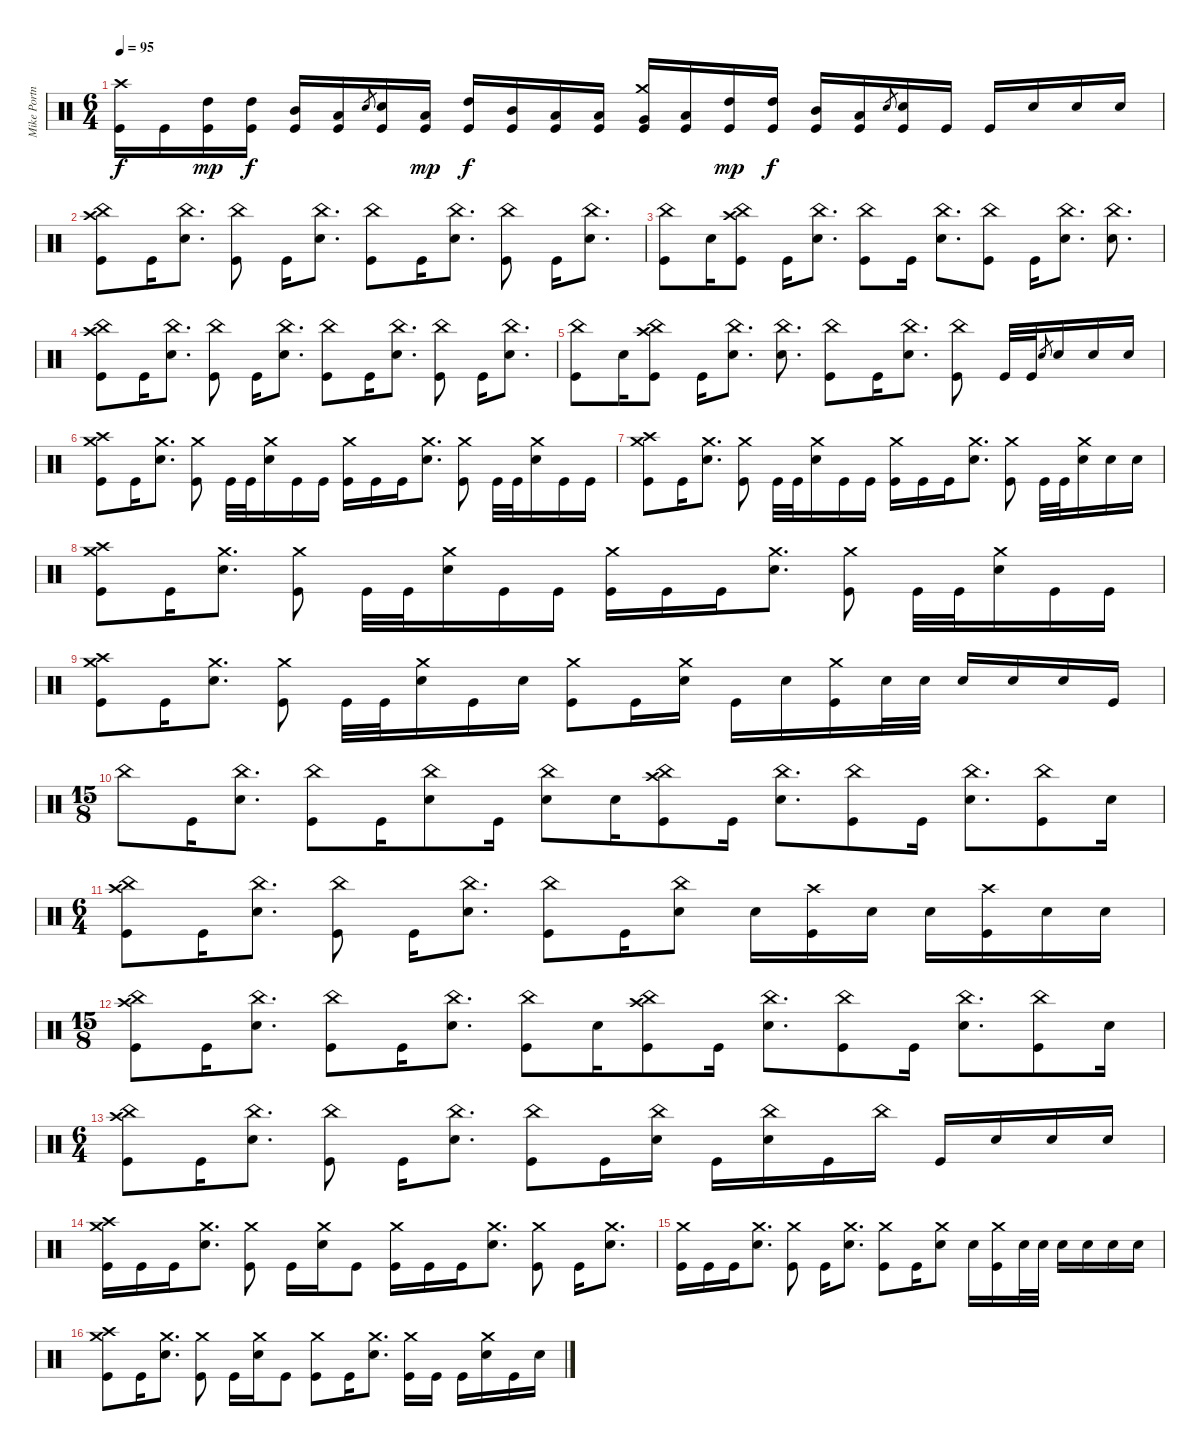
\track ("Mike Portnoy" "Mike Portn") {instrument percussion}
\staff {score}
\articulation defaults
\ts (6 4)
\tempo 95
\clef neutral
\ks c
("Crash high (hit)" "Kick (hit)").16{dy f} "Kick (hit)".16 ("High Tom (hit)" "Kick (hit)").16{dy mp} ("High Tom (hit)" "Kick (hit)").16{dy f} ("Mid Tom (hit)" "Kick (hit)").16 ("Low Tom (hit)" "Kick (hit)").16 "Electric Snare (hit)".8{gr} ("Electric Snare (hit)" "Kick (hit)").16 ("Low Tom (hit)" "Kick (hit)").16{dy mp} ("High Tom (hit)" "Kick (hit)").16{dy f} ("Mid Tom (hit)" "Kick (hit)").16 ("Low Tom (hit)" "Kick (hit)").16 ("Low Tom (hit)" "Kick (hit)").16 ("Crash medium (hit)" "Very Low Tom (hit)" "Kick (hit)").16 ("Low Tom (hit)" "Kick (hit)").16 ("High Tom (hit)" "Kick (hit)").16{dy mp} ("High Tom (hit)" "Kick (hit)").16{dy f} ("Mid Tom (hit)" "Kick (hit)").16 ("Low Tom (hit)" "Kick (hit)").16 "Electric Snare (hit)".8{gr} ("Electric Snare (hit)" "Kick (hit)").16 "Kick (hit)".16 "Kick (hit)".16 "Electric Snare (hit)".16 "Electric Snare (hit)".16 "Electric Snare (hit)".16 |
("China (hit)" "Crash high (hit)" "Kick (hit)").8 "Kick (hit)".16 ("China (hit)" "Electric Snare (hit)").8{d} ("China (hit)" "Kick (hit)").8 "Kick (hit)".16 ("China (hit)" "Electric Snare (hit)").8{d} ("China (hit)" "Kick (hit)").8 "Kick (hit)".16 ("China (hit)" "Electric Snare (hit)").8{d} ("China (hit)" "Kick (hit)").8 "Kick (hit)".16 ("China (hit)" "Electric Snare (hit)").8{d} |
("China (hit)" "Kick (hit)").8 "Electric Snare (hit)".16 ("China (hit)" "Crash high (hit)" "Kick (hit)").8 "Kick (hit)".16 ("China (hit)" "Electric Snare (hit)").8{d} ("China (hit)" "Kick (hit)").8 "Kick (hit)".16 ("China (hit)" "Electric Snare (hit)").8{d} ("China (hit)" "Kick (hit)").8 "Kick (hit)".16 ("China (hit)" "Electric Snare (hit)").8{d} ("China (hit)" "Electric Snare (hit)").8{d} |
("China (hit)" "Crash high (hit)" "Kick (hit)").8 "Kick (hit)".16 ("China (hit)" "Electric Snare (hit)").8{d} ("China (hit)" "Kick (hit)").8 "Kick (hit)".16 ("China (hit)" "Electric Snare (hit)").8{d} ("China (hit)" "Kick (hit)").8 "Kick (hit)".16 ("China (hit)" "Electric Snare (hit)").8{d} ("China (hit)" "Kick (hit)").8 "Kick (hit)".16 ("China (hit)" "Electric Snare (hit)").8{d} |
("China (hit)" "Kick (hit)").8 "Electric Snare (hit)".16 ("China (hit)" "Crash high (hit)" "Kick (hit)").8 "Kick (hit)".16 ("China (hit)" "Electric Snare (hit)").8{d} ("China (hit)" "Electric Snare (hit)").8{d} ("China (hit)" "Kick (hit)").8 "Kick (hit)".16 ("China (hit)" "Electric Snare (hit)").8{d} ("China (hit)" "Kick (hit)").8 "Kick (hit)".32 "Kick (hit)".32 "Electric Snare (hit)".8{gr} "Electric Snare (hit)".16 "Electric Snare (hit)".16 "Electric Snare (hit)".16 |
("Crash high (hit)" "Crash medium (hit)" "Kick (hit)").8 "Kick (hit)".16 ("Crash medium (hit)" "Electric Snare (hit)").8{d} ("Crash medium (hit)" "Kick (hit)").8 "Kick (hit)".32 "Kick (hit)".32 ("Crash medium (hit)" "Electric Snare (hit)").16 "Kick (hit)".16 "Kick (hit)".16 ("Crash medium (hit)" "Kick (hit)").16 "Kick (hit)".16 "Kick (hit)".16 ("Crash medium (hit)" "Electric Snare (hit)").8{d} ("Crash medium (hit)" "Kick (hit)").8 "Kick (hit)".32 "Kick (hit)".32 ("Crash medium (hit)" "Electric Snare (hit)").16 "Kick (hit)".16 "Kick (hit)".16 |
("Crash high (hit)" "Crash medium (hit)" "Kick (hit)").8 "Kick (hit)".16 ("Crash medium (hit)" "Electric Snare (hit)").8{d} ("Crash medium (hit)" "Kick (hit)").8 "Kick (hit)".32 "Kick (hit)".32 ("Crash medium (hit)" "Electric Snare (hit)").16 "Kick (hit)".16 "Kick (hit)".16 ("Crash medium (hit)" "Kick (hit)").16 "Kick (hit)".16 "Kick (hit)".16 ("Crash medium (hit)" "Electric Snare (hit)").8{d} ("Crash medium (hit)" "Kick (hit)").8 "Kick (hit)".32 "Kick (hit)".32 ("Crash medium (hit)" "Electric Snare (hit)").16 "Electric Snare (hit)".16 "Electric Snare (hit)".16 |
("Crash high (hit)" "Crash medium (hit)" "Kick (hit)").8 "Kick (hit)".16 ("Crash medium (hit)" "Electric Snare (hit)").8{d} ("Crash medium (hit)" "Kick (hit)").8 "Kick (hit)".32 "Kick (hit)".32 ("Crash medium (hit)" "Electric Snare (hit)").16 "Kick (hit)".16 "Kick (hit)".16 ("Crash medium (hit)" "Kick (hit)").16 "Kick (hit)".16 "Kick (hit)".16 ("Crash medium (hit)" "Electric Snare (hit)").8{d} ("Crash medium (hit)" "Kick (hit)").8 "Kick (hit)".32 "Kick (hit)".32 ("Crash medium (hit)" "Electric Snare (hit)").16 "Kick (hit)".16 "Kick (hit)".16 |
("Crash high (hit)" "Crash medium (hit)" "Kick (hit)").8 "Kick (hit)".16 ("Crash medium (hit)" "Electric Snare (hit)").8{d} ("Crash medium (hit)" "Kick (hit)").8 "Kick (hit)".32 "Kick (hit)".32 ("Crash medium (hit)" "Electric Snare (hit)").16 "Kick (hit)".16 "Electric Snare (hit)".16 ("Crash medium (hit)" "Kick (hit)").8 "Kick (hit)".16 ("Crash medium (hit)" "Electric Snare (hit)").16 "Kick (hit)".16 "Electric Snare (hit)".16 ("Crash medium (hit)" "Kick (hit)").16 "Electric Snare (hit)".32 "Electric Snare (hit)".32 "Electric Snare (hit)".16 "Electric Snare (hit)".16 "Electric Snare (hit)".16 "Kick (hit)".16 |
\ts (15 8)
"China (hit)".8 "Kick (hit)".16 ("China (hit)" "Electric Snare (hit)").8{d} ("China (hit)" "Kick (hit)").8 "Kick (hit)".16 ("China (hit)" "Electric Snare (hit)").8 "Kick (hit)".16 ("China (hit)" "Electric Snare (hit)").8 "Electric Snare (hit)".16 ("China (hit)" "Crash high (hit)" "Kick (hit)").8 "Kick (hit)".16 ("China (hit)" "Electric Snare (hit)").8{d} ("China (hit)" "Kick (hit)").8 "Kick (hit)".16 ("China (hit)" "Electric Snare (hit)").8{d} ("China (hit)" "Kick (hit)").8 "Electric Snare (hit)".16 |
\ts (6 4)
("China (hit)" "Crash high (hit)" "Kick (hit)").8 "Kick (hit)".16 ("China (hit)" "Electric Snare (hit)").8{d} ("China (hit)" "Kick (hit)").8 "Kick (hit)".16 ("China (hit)" "Electric Snare (hit)").8{d} ("China (hit)" "Kick (hit)").8 "Kick (hit)".16 ("China (hit)" "Electric Snare (hit)").8 "Electric Snare (hit)".16 ("Crash high (hit)" "Kick (hit)").16 "Electric Snare (hit)".16 "Electric Snare (hit)".16 ("Crash high (hit)" "Kick (hit)").16 "Electric Snare (hit)".16 "Electric Snare (hit)".16 |
\ts (15 8)
("China (hit)" "Crash high (hit)" "Kick (hit)").8 "Kick (hit)".16 ("China (hit)" "Electric Snare (hit)").8{d} ("China (hit)" "Kick (hit)").8 "Kick (hit)".16 ("China (hit)" "Electric Snare (hit)").8{d} ("China (hit)" "Kick (hit)").8 "Electric Snare (hit)".16 ("China (hit)" "Crash high (hit)" "Kick (hit)").8 "Kick (hit)".16 ("China (hit)" "Electric Snare (hit)").8{d} ("China (hit)" "Kick (hit)").8 "Kick (hit)".16 ("China (hit)" "Electric Snare (hit)").8{d} ("China (hit)" "Kick (hit)").8 "Electric Snare (hit)".16 |
\ts (6 4)
("China (hit)" "Crash high (hit)" "Kick (hit)").8 "Kick (hit)".16 ("China (hit)" "Electric Snare (hit)").8{d} ("China (hit)" "Kick (hit)").8 "Kick (hit)".16 ("China (hit)" "Electric Snare (hit)").8{d} ("China (hit)" "Kick (hit)").8 "Kick (hit)".16 ("China (hit)" "Electric Snare (hit)").16 "Kick (hit)".16 ("China (hit)" "Electric Snare (hit)").16 "Kick (hit)".16 "China (hit)".16 "Kick (hit)".16 "Electric Snare (hit)".16 "Electric Snare (hit)".16 "Electric Snare (hit)".16 |
("Crash high (hit)" "Crash medium (hit)" "Kick (hit)").16 "Kick (hit)".16 "Kick (hit)".16 ("Crash medium (hit)" "Electric Snare (hit)").8{d} ("Crash medium (hit)" "Kick (hit)").8 "Kick (hit)".16 ("Crash medium (hit)" "Electric Snare (hit)").16 "Kick (hit)".8 ("Crash medium (hit)" "Kick (hit)").16 "Kick (hit)".16 "Kick (hit)".16 ("Crash medium (hit)" "Electric Snare (hit)").8{d} ("Crash medium (hit)" "Kick (hit)").8 "Kick (hit)".16 ("Crash medium (hit)" "Electric Snare (hit)").8{d} |
("Crash medium (hit)" "Kick (hit)").16 "Kick (hit)".16 "Kick (hit)".16 ("Crash medium (hit)" "Electric Snare (hit)").8{d} ("Crash medium (hit)" "Kick (hit)").8 "Kick (hit)".16 ("Crash medium (hit)" "Electric Snare (hit)").8{d} ("Crash medium (hit)" "Kick (hit)").8 "Kick (hit)".16 ("Crash medium (hit)" "Electric Snare (hit)").8 "Electric Snare (hit)".16 ("Crash medium (hit)" "Kick (hit)").16 "Electric Snare (hit)".32 "Electric Snare (hit)".32 "Electric Snare (hit)".16 "Electric Snare (hit)".16 "Electric Snare (hit)".16 "Electric Snare (hit)".16 |
("Crash high (hit)" "Crash medium (hit)" "Kick (hit)").8 "Kick (hit)".16 ("Crash medium (hit)" "Electric Snare (hit)").8{d} ("Crash medium (hit)" "Kick (hit)").8 "Kick (hit)".16 ("Crash medium (hit)" "Electric Snare (hit)").16 "Kick (hit)".8 ("Crash medium (hit)" "Kick (hit)").8 "Kick (hit)".16 ("Crash medium (hit)" "Electric Snare (hit)").8{d} ("Crash medium (hit)" "Kick (hit)").16 "Kick (hit)".16 "Kick (hit)".16 ("Crash medium (hit)" "Electric Snare (hit)").16 "Kick (hit)".16 "Electric Snare (hit)".16
